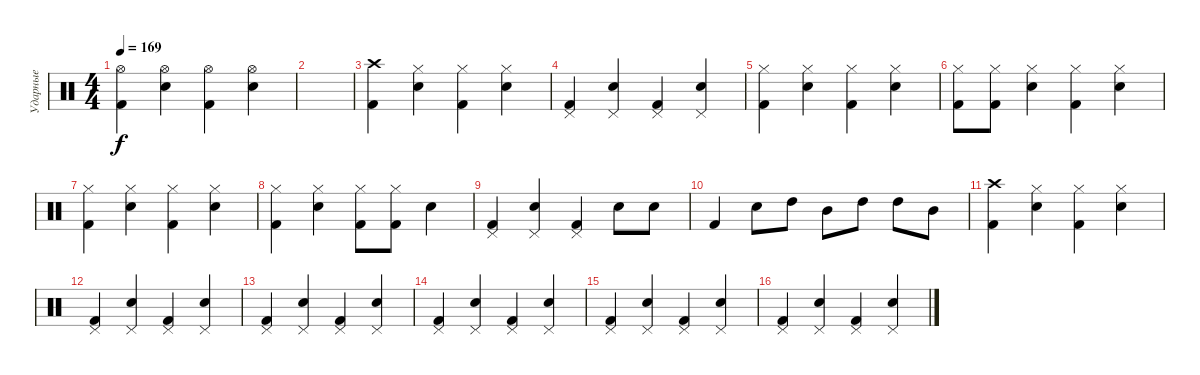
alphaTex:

\track ("Ударные" "Ударные") {instrument percussion}
\staff {score}
\articulation defaults
\ts (4 4)
\tempo 169
\clef neutral
\ks c
("Kick (hit) 2" "Hi-Hat (open)").4{dy f} ("Electric Snare (hit)" "Hi-Hat (open)").4 ("Kick (hit) 2" "Hi-Hat (open)").4 ("Electric Snare (hit)" "Hi-Hat (open)").4 |
|
("Kick (hit) 2" "Crash high (hit)").4 ("Electric Snare (hit)" "Hi-Hat (closed)").4 ("Kick (hit) 2" "Hi-Hat (closed)").4 ("Electric Snare (hit)" "Hi-Hat (closed)").4 |
("Kick (hit) 2" "Pedal Hi-Hat (hit)").4 ("Electric Snare (hit)" "Pedal Hi-Hat (hit)").4 ("Kick (hit) 2" "Pedal Hi-Hat (hit)").4 ("Electric Snare (hit)" "Pedal Hi-Hat (hit)").4 |
("Kick (hit) 2" "Hi-Hat (closed)").4 ("Electric Snare (hit)" "Hi-Hat (closed)").4 ("Kick (hit) 2" "Hi-Hat (closed)").4 ("Electric Snare (hit)" "Hi-Hat (closed)").4 |
("Kick (hit) 2" "Hi-Hat (closed)").8 ("Kick (hit) 2" "Hi-Hat (closed)").8 ("Electric Snare (hit)" "Hi-Hat (closed)").4 ("Kick (hit) 2" "Hi-Hat (closed)").4 ("Electric Snare (hit)" "Hi-Hat (closed)").4 |
("Kick (hit) 2" "Hi-Hat (closed)").4 ("Electric Snare (hit)" "Hi-Hat (closed)").4 ("Kick (hit) 2" "Hi-Hat (closed)").4 ("Electric Snare (hit)" "Hi-Hat (closed)").4 |
("Kick (hit) 2" "Hi-Hat (closed)").4 ("Electric Snare (hit)" "Hi-Hat (closed)").4 ("Kick (hit) 2" "Hi-Hat (closed)").8 ("Kick (hit) 2" "Hi-Hat (closed)").8 "Electric Snare (hit)".4 |
("Kick (hit) 2" "Pedal Hi-Hat (hit)").4 ("Electric Snare (hit)" "Pedal Hi-Hat (hit)").4 ("Kick (hit) 2" "Pedal Hi-Hat (hit)").4 "Electric Snare (hit)".8 "Electric Snare (hit)".8 |
"Kick (hit) 2".4 "Electric Snare (hit)".8 "High Tom (hit)".8 "Mid Tom (hit)".8 "High Tom (hit)".8 "High Tom (hit)".8 "Mid Tom (hit)".8 |
("Kick (hit) 2" "Crash high (hit)").4 ("Electric Snare (hit)" "Hi-Hat (closed)").4 ("Kick (hit) 2" "Hi-Hat (closed)").4 ("Electric Snare (hit)" "Hi-Hat (closed)").4 |
("Kick (hit) 2" "Pedal Hi-Hat (hit)").4 ("Electric Snare (hit)" "Pedal Hi-Hat (hit)").4 ("Kick (hit) 2" "Pedal Hi-Hat (hit)").4 ("Electric Snare (hit)" "Pedal Hi-Hat (hit)").4 |
("Kick (hit) 2" "Pedal Hi-Hat (hit)").4 ("Electric Snare (hit)" "Pedal Hi-Hat (hit)").4 ("Kick (hit) 2" "Pedal Hi-Hat (hit)").4 ("Electric Snare (hit)" "Pedal Hi-Hat (hit)").4 |
("Kick (hit) 2" "Pedal Hi-Hat (hit)").4 ("Electric Snare (hit)" "Pedal Hi-Hat (hit)").4 ("Kick (hit) 2" "Pedal Hi-Hat (hit)").4 ("Electric Snare (hit)" "Pedal Hi-Hat (hit)").4 |
("Kick (hit) 2" "Pedal Hi-Hat (hit)").4 ("Electric Snare (hit)" "Pedal Hi-Hat (hit)").4 ("Kick (hit) 2" "Pedal Hi-Hat (hit)").4 ("Electric Snare (hit)" "Pedal Hi-Hat (hit)").4 |
("Kick (hit) 2" "Pedal Hi-Hat (hit)").4 ("Electric Snare (hit)" "Pedal Hi-Hat (hit)").4 ("Kick (hit) 2" "Pedal Hi-Hat (hit)").4 ("Electric Snare (hit)" "Pedal Hi-Hat (hit)").4
